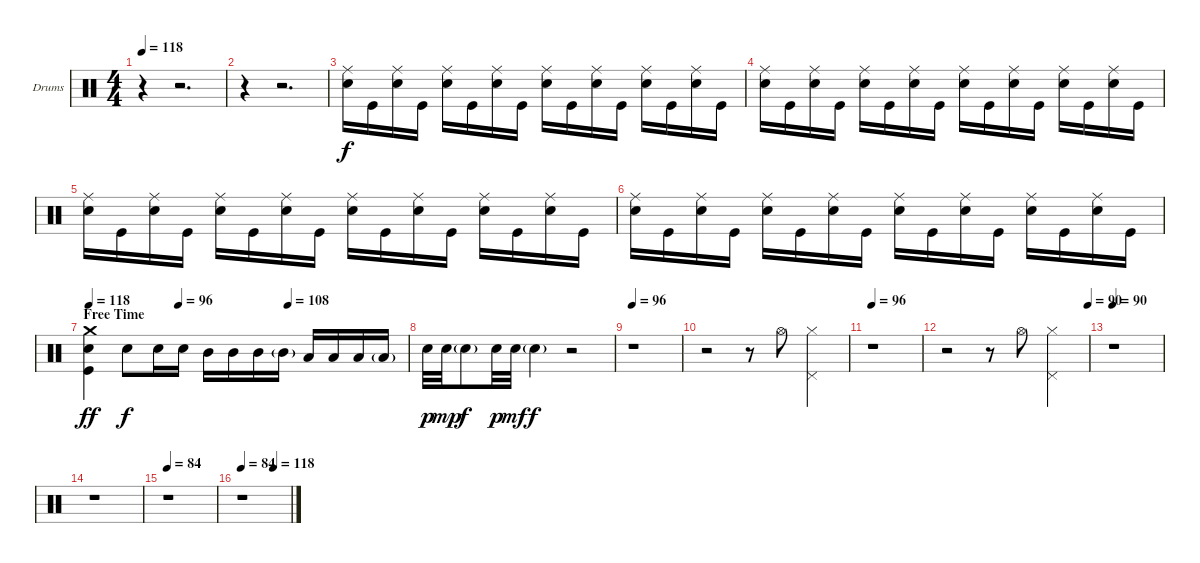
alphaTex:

\bracketExtendMode groupsimilarinstruments
\firstSystemTrackNameOrientation horizontal
\otherSystemsTrackNameOrientation horizontal
\track ("Drumkit" "Drums") {instrument percussion}
\staff {score}
\articulation defaults
\ts (4 4)
\tempo 118
\clef neutral
\ks c
r.4{dy f} r.2{d} |
r.4 r.2{d} |
("Ride (middle)" "Snare (hit) 2").16 "Kick (hit)".16 ("Ride (middle)" "Snare (hit) 2").16 "Kick (hit)".16 ("Ride (middle)" "Snare (hit) 2").16 "Kick (hit)".16 ("Ride (middle)" "Snare (hit) 2").16 "Kick (hit)".16 ("Ride (middle)" "Snare (hit) 2").16 "Kick (hit)".16 ("Ride (middle)" "Snare (hit) 2").16 "Kick (hit)".16 ("Ride (middle)" "Snare (hit) 2").16 "Kick (hit)".16 ("Ride (middle)" "Snare (hit) 2").16 "Kick (hit)".16 |
("Ride (middle)" "Snare (hit) 2").16 "Kick (hit)".16 ("Ride (middle)" "Snare (hit) 2").16 "Kick (hit)".16 ("Ride (middle)" "Snare (hit) 2").16 "Kick (hit)".16 ("Ride (middle)" "Snare (hit) 2").16 "Kick (hit)".16 ("Ride (middle)" "Snare (hit) 2").16 "Kick (hit)".16 ("Ride (middle)" "Snare (hit) 2").16 "Kick (hit)".16 ("Ride (middle)" "Snare (hit) 2").16 "Kick (hit)".16 ("Ride (middle)" "Snare (hit) 2").16 "Kick (hit)".16 |
("Ride (middle)" "Snare (hit) 2").16 "Kick (hit)".16 ("Ride (middle)" "Snare (hit) 2").16 "Kick (hit)".16 ("Ride (middle)" "Snare (hit) 2").16 "Kick (hit)".16 ("Ride (middle)" "Snare (hit) 2").16 "Kick (hit)".16 ("Ride (middle)" "Snare (hit) 2").16 "Kick (hit)".16 ("Ride (middle)" "Snare (hit) 2").16 "Kick (hit)".16 ("Ride (middle)" "Snare (hit) 2").16 "Kick (hit)".16 ("Ride (middle)" "Snare (hit) 2").16 "Kick (hit)".16 |
("Ride (middle)" "Snare (hit) 2").16 "Kick (hit)".16 ("Ride (middle)" "Snare (hit) 2").16 "Kick (hit)".16 ("Ride (middle)" "Snare (hit) 2").16 "Kick (hit)".16 ("Ride (middle)" "Snare (hit) 2").16 "Kick (hit)".16 ("Ride (middle)" "Snare (hit) 2").16 "Kick (hit)".16 ("Ride (middle)" "Snare (hit) 2").16 "Kick (hit)".16 ("Ride (middle)" "Snare (hit) 2").16 "Kick (hit)".16 ("Ride (middle)" "Snare (hit) 2").16 "Kick (hit)".16 |
\section ("" "Free Time")
\tempo 118
\tempo (96 0.28125)
\tempo (108 0.625)
("Crash medium (hit)" "Snare (hit) 2" "Kick (hit)").4{dy ff} "Snare (hit) 2".8{dy f} "Snare (hit) 2".16 "Snare (hit) 2".16 "Mid Tom (hit)".16 "Mid Tom (hit)".16 "Mid Tom (hit)".16 "Mid Tom (hit)"{g}.16 "Low Tom (hit)".16 "Low Tom (hit)".16 "Low Tom (hit)".16 "Low Tom (hit)"{g}.16 |
"Snare (hit) 2".32{dy p} "Snare (hit) 2".32{dy mp} "Snare (hit) 2"{g}.8{dy f} "Snare (hit) 2".32{dy p} "Snare (hit) 2".32{dy mf} "Snare (hit) 2"{g}.4{dy f} r.2 |
\tempo 96
r.1 |
r.2 r.8 "Hi-Hat (open)".8 ("Hi-Hat (closed)" "Pedal Hi-Hat (hit)").4 |
\tempo 96
r.1 |
\tempo (90 1)
r.2 r.8 "Hi-Hat (open)".8 ("Hi-Hat (closed)" "Pedal Hi-Hat (hit)").4 |
\tempo 90
r.1 |
r.1 |
\tempo 84
r.1 |
\tempo 84
\tempo (118 0.65625)
r.1
